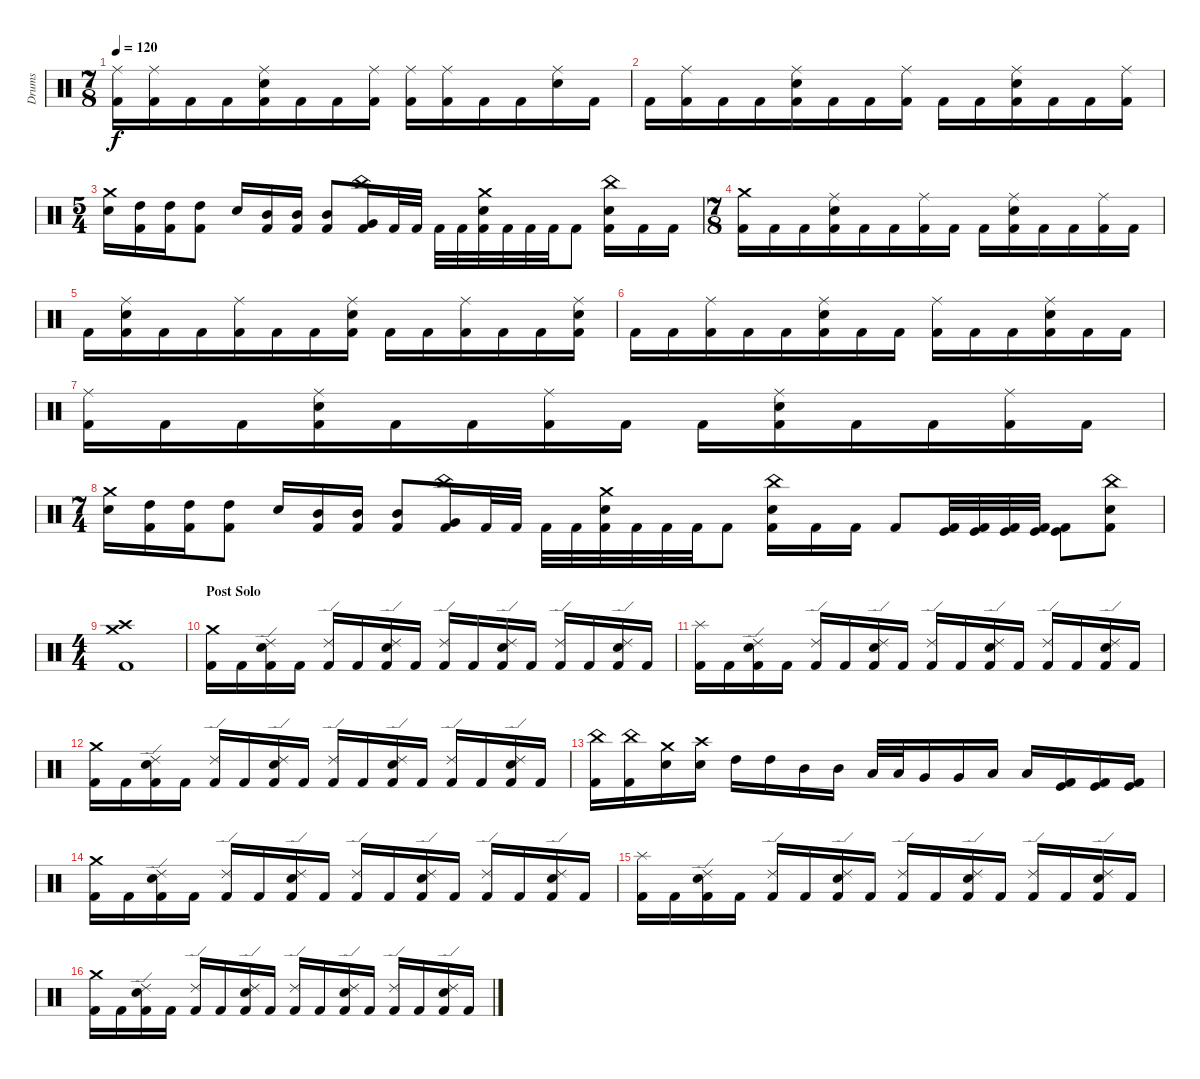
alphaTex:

\track ("Drums" "Drums") {instrument percussion}
\staff {score}
\articulation defaults
\ts (7 8)
\tempo 120
\clef neutral
\ks c
("Ride (middle)" "Kick (hit) 2").16{dy f} ("Ride (middle)" "Kick (hit) 2").16 "Kick (hit) 2".16 "Kick (hit) 2".16 ("Ride (middle)" "Electric Snare (hit)" "Kick (hit) 2").16 "Kick (hit) 2".16 "Kick (hit) 2".16 ("Ride (middle)" "Kick (hit) 2").16 ("Ride (middle)" "Kick (hit) 2").16 ("Ride (middle)" "Kick (hit) 2").16 "Kick (hit) 2".16 "Kick (hit) 2".16 ("Ride (middle)" "Electric Snare (hit)").16 "Kick (hit) 2".16 |
"Kick (hit) 2".16 ("Ride (middle)" "Kick (hit) 2").16 "Kick (hit) 2".16 "Kick (hit) 2".16 ("Ride (middle)" "Electric Snare (hit)" "Kick (hit) 2").16 "Kick (hit) 2".16 "Kick (hit) 2".16 ("Ride (middle)" "Kick (hit) 2").16 "Kick (hit) 2".16 "Kick (hit) 2".16 ("Ride (middle)" "Electric Snare (hit)" "Kick (hit) 2").16 "Kick (hit) 2".16 "Kick (hit) 2".16 ("Ride (middle)" "Kick (hit) 2").16 |
\ts (5 4)
("Crash medium (hit)" "Electric Snare (hit)").16 ("High Tom (hit)" "Kick (hit) 2").16 ("High Tom (hit)" "Kick (hit) 2").16 ("High Tom (hit)" "Kick (hit) 2").8 "Electric Snare (hit)".16 ("Mid Tom (hit)" "Kick (hit) 2").16 ("Mid Tom (hit)" "Kick (hit) 2").16 ("Mid Tom (hit)" "Kick (hit) 2").8 ("China (hit)" "Very Low Tom (hit)" "Kick (hit) 2").16 "Kick (hit) 2".32 "Kick (hit) 2".32 "Kick (hit) 2".32 "Kick (hit) 2".32 ("Crash medium (hit)" "Electric Snare (hit)" "Kick (hit) 2").32 "Kick (hit) 2".32 "Kick (hit) 2".32 "Kick (hit) 2".32 "Kick (hit) 2".8 ("China (hit)" "Electric Snare (hit)" "Kick (hit) 2").16 "Kick (hit) 2".16 "Kick (hit) 2".16 |
\ts (7 8)
("Crash medium (hit)" "Kick (hit) 2").16 "Kick (hit) 2".16 "Kick (hit) 2".16 ("Ride (middle)" "Electric Snare (hit)" "Kick (hit) 2").16 "Kick (hit) 2".16 "Kick (hit) 2".16 ("Ride (middle)" "Kick (hit) 2").16 "Kick (hit) 2".16 "Kick (hit) 2".16 ("Ride (middle)" "Electric Snare (hit)" "Kick (hit) 2").16 "Kick (hit) 2".16 "Kick (hit) 2".16 ("Ride (middle)" "Kick (hit) 2").16 "Kick (hit) 2".16 |
"Kick (hit) 2".16 ("Ride (middle)" "Electric Snare (hit)" "Kick (hit) 2").16 "Kick (hit) 2".16 "Kick (hit) 2".16 ("Ride (middle)" "Kick (hit) 2").16 "Kick (hit) 2".16 "Kick (hit) 2".16 ("Ride (middle)" "Electric Snare (hit)" "Kick (hit) 2").16 "Kick (hit) 2".16 "Kick (hit) 2".16 ("Ride (middle)" "Kick (hit) 2").16 "Kick (hit) 2".16 "Kick (hit) 2".16 ("Ride (middle)" "Electric Snare (hit)" "Kick (hit) 2").16 |
"Kick (hit) 2".16 "Kick (hit) 2".16 ("Ride (middle)" "Kick (hit) 2").16 "Kick (hit) 2".16 "Kick (hit) 2".16 ("Ride (middle)" "Electric Snare (hit)" "Kick (hit) 2").16 "Kick (hit) 2".16 "Kick (hit) 2".16 ("Ride (middle)" "Kick (hit) 2").16 "Kick (hit) 2".16 "Kick (hit) 2".16 ("Ride (middle)" "Electric Snare (hit)" "Kick (hit) 2").16 "Kick (hit) 2".16 "Kick (hit) 2".16 |
("Ride (middle)" "Kick (hit) 2").16 "Kick (hit) 2".16 "Kick (hit) 2".16 ("Ride (middle)" "Electric Snare (hit)" "Kick (hit) 2").16 "Kick (hit) 2".16 "Kick (hit) 2".16 ("Ride (middle)" "Kick (hit) 2").16 "Kick (hit) 2".16 "Kick (hit) 2".16 ("Ride (middle)" "Electric Snare (hit)" "Kick (hit) 2").16 "Kick (hit) 2".16 "Kick (hit) 2".16 ("Ride (middle)" "Kick (hit) 2").16 "Kick (hit) 2".16 |
\ts (7 4)
("Crash medium (hit)" "Electric Snare (hit)").16 ("High Tom (hit)" "Kick (hit) 2").16 ("High Tom (hit)" "Kick (hit) 2").16 ("High Tom (hit)" "Kick (hit) 2").8 "Electric Snare (hit)".16 ("Mid Tom (hit)" "Kick (hit) 2").16 ("Mid Tom (hit)" "Kick (hit) 2").16 ("Mid Tom (hit)" "Kick (hit) 2").8 ("China (hit)" "Very Low Tom (hit)" "Kick (hit) 2").16 "Kick (hit) 2".32 "Kick (hit) 2".32 "Kick (hit) 2".32 "Kick (hit) 2".32 ("Crash medium (hit)" "Electric Snare (hit)" "Kick (hit) 2").32 "Kick (hit) 2".32 "Kick (hit) 2".32 "Kick (hit) 2".32 "Kick (hit) 2".8 ("China (hit)" "Electric Snare (hit)" "Kick (hit) 2").16 "Kick (hit) 2".16 "Kick (hit) 2".16 "Kick (hit) 2".8 ("Kick (hit)" "Kick (hit) 2").32 ("Kick (hit)" "Kick (hit) 2").32 ("Kick (hit)" "Kick (hit) 2").32 ("Kick (hit)" "Kick (hit) 2").32 ("Kick (hit)" "Kick (hit) 2").8 ("China (hit)" "Electric Snare (hit)" "Kick (hit) 2").8 |
\ts (4 4)
("Crash medium (hit)" "Crash high (hit)" "Kick (hit) 2").1 |
\section ("" "Post Solo")
("Crash medium (hit)" "Kick (hit) 2").16 "Kick (hit) 2".16 ("Ride (edge) 2" "Electric Snare (hit)" "Kick (hit) 2").16 "Kick (hit) 2".16 ("Ride (edge) 2" "Kick (hit) 2").16 "Kick (hit) 2".16 ("Ride (edge) 2" "Electric Snare (hit)" "Kick (hit) 2").16 "Kick (hit) 2".16 ("Ride (edge) 2" "Kick (hit) 2").16 "Kick (hit) 2".16 ("Ride (edge) 2" "Electric Snare (hit)" "Kick (hit) 2").16 "Kick (hit) 2".16 ("Ride (edge) 2" "Kick (hit) 2").16 "Kick (hit) 2".16 ("Ride (edge) 2" "Electric Snare (hit)" "Kick (hit) 2").16 "Kick (hit) 2".16 |
("Splash (hit)" "Kick (hit) 2").16 "Kick (hit) 2".16 ("Ride (edge) 2" "Electric Snare (hit)" "Kick (hit) 2").16 "Kick (hit) 2".16 ("Ride (edge) 2" "Kick (hit) 2").16 "Kick (hit) 2".16 ("Ride (edge) 2" "Electric Snare (hit)" "Kick (hit) 2").16 "Kick (hit) 2".16 ("Ride (edge) 2" "Kick (hit) 2").16 "Kick (hit) 2".16 ("Ride (edge) 2" "Electric Snare (hit)" "Kick (hit) 2").16 "Kick (hit) 2".16 ("Ride (edge) 2" "Kick (hit) 2").16 "Kick (hit) 2".16 ("Ride (edge) 2" "Electric Snare (hit)" "Kick (hit) 2").16 "Kick (hit) 2".16 |
("Crash medium (hit)" "Kick (hit) 2").16 "Kick (hit) 2".16 ("Ride (edge) 2" "Electric Snare (hit)" "Kick (hit) 2").16 "Kick (hit) 2".16 ("Ride (edge) 2" "Kick (hit) 2").16 "Kick (hit) 2".16 ("Ride (edge) 2" "Electric Snare (hit)" "Kick (hit) 2").16 "Kick (hit) 2".16 ("Ride (edge) 2" "Kick (hit) 2").16 "Kick (hit) 2".16 ("Ride (edge) 2" "Electric Snare (hit)" "Kick (hit) 2").16 "Kick (hit) 2".16 ("Ride (edge) 2" "Kick (hit) 2").16 "Kick (hit) 2".16 ("Ride (edge) 2" "Electric Snare (hit)" "Kick (hit) 2").16 "Kick (hit) 2".16 |
("China (hit)" "Kick (hit) 2").16 ("China (hit)" "Kick (hit) 2").16 ("Crash medium (hit)" "Electric Snare (hit)").16 ("Crash high (hit)" "Electric Snare (hit)").16 "High Tom (hit)".16 "High Tom (hit)".16 "Mid Tom (hit)".16 "Mid Tom (hit)".16 "Low Tom (hit)".32 "Low Tom (hit)".32 "Very Low Tom (hit)".16 "Very Low Tom (hit)".16 "Low Floor Tom (hit)".16 "Low Floor Tom (hit)".16 ("Kick (hit)" "Kick (hit) 2").16 ("Kick (hit)" "Kick (hit) 2").16 ("Kick (hit)" "Kick (hit) 2").16 |
("Crash medium (hit)" "Kick (hit) 2").16 "Kick (hit) 2".16 ("Ride (edge) 2" "Electric Snare (hit)" "Kick (hit) 2").16 "Kick (hit) 2".16 ("Ride (edge) 2" "Kick (hit) 2").16 "Kick (hit) 2".16 ("Ride (edge) 2" "Electric Snare (hit)" "Kick (hit) 2").16 "Kick (hit) 2".16 ("Ride (edge) 2" "Kick (hit) 2").16 "Kick (hit) 2".16 ("Ride (edge) 2" "Electric Snare (hit)" "Kick (hit) 2").16 "Kick (hit) 2".16 ("Ride (edge) 2" "Kick (hit) 2").16 "Kick (hit) 2".16 ("Ride (edge) 2" "Electric Snare (hit)" "Kick (hit) 2").16 "Kick (hit) 2".16 |
("Splash (hit)" "Kick (hit) 2").16 "Kick (hit) 2".16 ("Ride (edge) 2" "Electric Snare (hit)" "Kick (hit) 2").16 "Kick (hit) 2".16 ("Ride (edge) 2" "Kick (hit) 2").16 "Kick (hit) 2".16 ("Ride (edge) 2" "Electric Snare (hit)" "Kick (hit) 2").16 "Kick (hit) 2".16 ("Ride (edge) 2" "Kick (hit) 2").16 "Kick (hit) 2".16 ("Ride (edge) 2" "Electric Snare (hit)" "Kick (hit) 2").16 "Kick (hit) 2".16 ("Ride (edge) 2" "Kick (hit) 2").16 "Kick (hit) 2".16 ("Ride (edge) 2" "Electric Snare (hit)" "Kick (hit) 2").16 "Kick (hit) 2".16 |
("Crash medium (hit)" "Kick (hit) 2").16 "Kick (hit) 2".16 ("Ride (edge) 2" "Electric Snare (hit)" "Kick (hit) 2").16 "Kick (hit) 2".16 ("Ride (edge) 2" "Kick (hit) 2").16 "Kick (hit) 2".16 ("Ride (edge) 2" "Electric Snare (hit)" "Kick (hit) 2").16 "Kick (hit) 2".16 ("Ride (edge) 2" "Kick (hit) 2").16 "Kick (hit) 2".16 ("Ride (edge) 2" "Electric Snare (hit)" "Kick (hit) 2").16 "Kick (hit) 2".16 ("Ride (edge) 2" "Kick (hit) 2").16 "Kick (hit) 2".16 ("Ride (edge) 2" "Electric Snare (hit)" "Kick (hit) 2").16 "Kick (hit) 2".16
